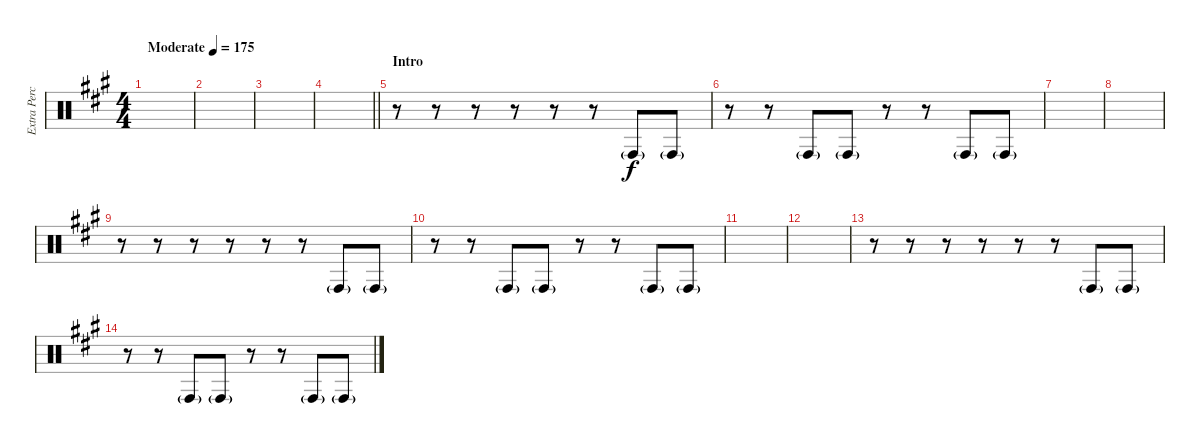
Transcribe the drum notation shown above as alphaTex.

\track ("Extra Percussion" "Extra Perc") {instrument percussion}
\staff {score}
\articulation defaults
\ts (4 4)
\tempo (175 "Moderate")
\clef neutral
\ks f#minor
|
|
|
\barLineRight lightlight
|
\section ("" "Intro")
r.8 r.8 r.8 r.8 r.8 r.8 "Conga high (hit)"{g}.8 "Conga high (hit)"{g}.8 |
r.8 r.8 "Conga high (hit)"{g}.8 "Conga high (hit)"{g}.8 r.8 r.8 "Conga high (hit)"{g}.8 "Conga high (hit)"{g}.8 |
|
|
r.8 r.8 r.8 r.8 r.8 r.8 "Conga high (hit)"{g}.8 "Conga high (hit)"{g}.8 |
r.8 r.8 "Conga high (hit)"{g}.8 "Conga high (hit)"{g}.8 r.8 r.8 "Conga high (hit)"{g}.8 "Conga high (hit)"{g}.8 |
|
|
r.8 r.8 r.8 r.8 r.8 r.8 "Conga high (hit)"{g}.8 "Conga high (hit)"{g}.8 |
r.8 r.8 "Conga high (hit)"{g}.8 "Conga high (hit)"{g}.8 r.8 r.8 "Conga high (hit)"{g}.8 "Conga high (hit)"{g}.8
